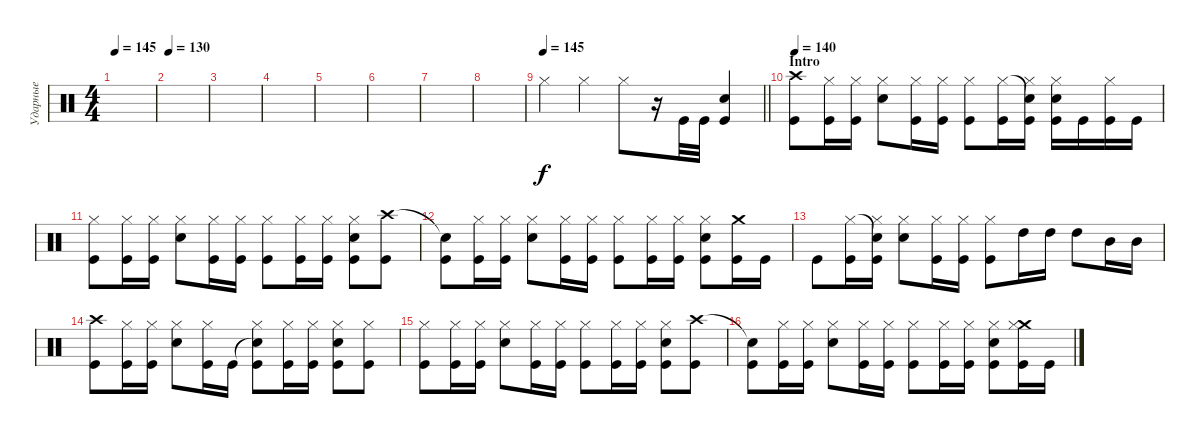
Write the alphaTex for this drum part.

\track ("Ударные" "Ударные") {instrument percussion}
\staff {score}
\articulation defaults
\ts (4 4)
\tempo 145
\tempo 130
\tempo 145
\clef neutral
\ks c
|
\tempo 130
|
|
|
|
|
|
|
\tempo 145
\barLineRight lightlight "Hi-Hat (closed)".4 "Hi-Hat (closed)".4 "Hi-Hat (closed)".8
r.16 "Kick (hit)".32 "Kick (hit)".32 ("Electric Snare (hit)" "Kick (hit)").4 |
\section ("" "Intro")
\tempo 140
("Crash high (hit)" "Kick (hit)").8 ("Hi-Hat (closed)" "Kick (hit)").16 ("Hi-Hat (closed)" "Kick (hit)").16 ("Hi-Hat (closed)" "Electric Snare (hit)").8 ("Hi-Hat (closed)" "Kick (hit)").16 ("Hi-Hat (closed)" "Kick (hit)").16 ("Hi-Hat (closed)" "Kick (hit)").8 ("Hi-Hat (closed)" "Kick (hit)").16 ("Snare (hit)"{t} "Hi-Hat (closed)" "Kick (hit)").16 ("Hi-Hat (closed)" "Electric Snare (hit)" "Kick (hit)").16 "Kick (hit)".16 ("Hi-Hat (closed)" "Kick (hit)").16 "Kick (hit)".16 |
("Hi-Hat (closed)" "Kick (hit)").8 ("Hi-Hat (closed)" "Kick (hit)").16 ("Hi-Hat (closed)" "Kick (hit)").16 ("Hi-Hat (closed)" "Electric Snare (hit)").8 ("Hi-Hat (closed)" "Kick (hit)").16 ("Hi-Hat (closed)" "Kick (hit)").16 ("Hi-Hat (closed)" "Kick (hit)").8 ("Hi-Hat (closed)" "Kick (hit)").16 ("Hi-Hat (closed)" "Kick (hit)").16 ("Hi-Hat (closed)" "Electric Snare (hit)" "Kick (hit)").8 ("Crash high (hit)" "Kick (hit)").8 |
("Snare (hit)"{t} "Kick (hit)").8 ("Hi-Hat (closed)" "Kick (hit)").16 ("Hi-Hat (closed)" "Kick (hit)").16 ("Hi-Hat (closed)" "Electric Snare (hit)").8 ("Hi-Hat (closed)" "Kick (hit)").16 ("Hi-Hat (closed)" "Kick (hit)").16 ("Hi-Hat (closed)" "Kick (hit)").8 ("Hi-Hat (closed)" "Kick (hit)").16 ("Hi-Hat (closed)" "Kick (hit)").16 ("Hi-Hat (closed)" "Electric Snare (hit)" "Kick (hit)").8 ("Crash medium (hit)" "Kick (hit)").16 "Kick (hit)".16 |
"Kick (hit)".8 ("Hi-Hat (closed)" "Kick (hit)").16 ("Snare (hit)"{t} "Hi-Hat (closed)" "Kick (hit)").16 ("Hi-Hat (closed)" "Electric Snare (hit)").8 ("Hi-Hat (closed)" "Kick (hit)").16 ("Hi-Hat (closed)" "Kick (hit)").16 ("Hi-Hat (closed)" "Kick (hit)").8 "High Tom (hit)".16 "High Tom (hit)".16 "High Tom (hit)".8 "Mid Tom (hit)".16 "Mid Tom (hit)".16 |
("Crash high (hit)" "Kick (hit)").8 ("Hi-Hat (closed)" "Kick (hit)").16 ("Hi-Hat (closed)" "Kick (hit)").16 ("Hi-Hat (closed)" "Electric Snare (hit)").8 ("Hi-Hat (closed)" "Kick (hit)").16 "Kick (hit)".16 ("Snare (hit)"{t} "Hi-Hat (closed)" "Kick (hit)").8 ("Hi-Hat (closed)" "Kick (hit)").16 ("Hi-Hat (closed)" "Kick (hit)").16 ("Hi-Hat (closed)" "Electric Snare (hit)" "Kick (hit)").8 ("Hi-Hat (closed)" "Kick (hit)").8 |
("Hi-Hat (closed)" "Kick (hit)").8 ("Hi-Hat (closed)" "Kick (hit)").16 ("Hi-Hat (closed)" "Kick (hit)").16 ("Hi-Hat (closed)" "Electric Snare (hit)").8 ("Hi-Hat (closed)" "Kick (hit)").16 ("Hi-Hat (closed)" "Kick (hit)").16 ("Hi-Hat (closed)" "Kick (hit)").8 ("Hi-Hat (closed)" "Kick (hit)").16 ("Hi-Hat (closed)" "Kick (hit)").16 ("Hi-Hat (closed)" "Electric Snare (hit)" "Kick (hit)").8 ("Crash high (hit)" "Kick (hit)").8 |
("Snare (hit)"{t} "Kick (hit)").8 ("Hi-Hat (closed)" "Kick (hit)").16 ("Hi-Hat (closed)" "Kick (hit)").16 ("Hi-Hat (closed)" "Electric Snare (hit)").8 ("Hi-Hat (closed)" "Kick (hit)").16 ("Hi-Hat (closed)" "Kick (hit)").16 ("Hi-Hat (closed)" "Kick (hit)").8 ("Hi-Hat (closed)" "Kick (hit)").16 ("Hi-Hat (closed)" "Kick (hit)").16 ("Hi-Hat (closed)" "Electric Snare (hit)" "Kick (hit)").8 ("Crash medium (hit)" "Hi-Hat (closed)" "Kick (hit)").16 "Kick (hit)".16
